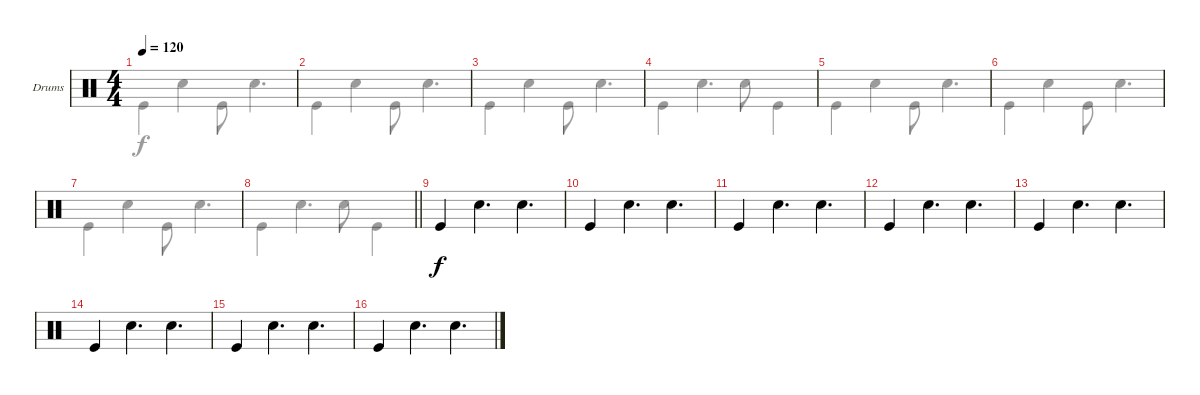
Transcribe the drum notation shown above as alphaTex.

\defaultSystemsLayout 4
\bracketExtendMode groupsimilarinstruments
\firstSystemTrackNameOrientation horizontal
\otherSystemsTrackNameOrientation horizontal
\track ("Drums" "Drums") {instrument percussion}
\staff {score}
\articulation defaults
\voice
\ts (4 4)
\scale
0.534395
\tempo 120
\accidentals auto
\clef neutral
\ottava regular
\simile none
\ks aminor
|
\scale
0.465695 |
\scale
0.499796 |
\scale
0.500548 |
\scale
0.52725 |
\scale
0.472816 |
\scale
0.502149 |
\scale
0.498113
\barLineRight lightlight
|
\scale
0.518571 "Kick (hit)".4 "Snare (hit) 2".4{d} "Snare (hit) 2".4{d} |
\scale
0.481481 "Kick (hit)".4 "Snare (hit) 2".4{d} "Snare (hit) 2".4{d} |
\scale
0.522857 "Kick (hit)".4 "Snare (hit) 2".4{d} "Snare (hit) 2".4{d} |
\scale
0.477208 "Kick (hit)".4 "Snare (hit) 2".4{d} "Snare (hit) 2".4{d} |
\scale
0.535714 "Kick (hit)".4 "Snare (hit) 2".4{d} "Snare (hit) 2".4{d} |
\scale
0.464387 "Kick (hit)".4 "Snare (hit) 2".4{d} "Snare (hit) 2".4{d} |
\scale
0.544286 "Kick (hit)".4 "Snare (hit) 2".4{d} "Snare (hit) 2".4{d} |
\scale
0.45584 "Kick (hit)".4 "Snare (hit) 2".4{d} "Snare (hit) 2".4{d}
\voice
\clef neutral
\ottava regular
\simile none
\ks aminor "Kick (hit)".4{dy f} "Snare (hit) 2".4 "Kick (hit)".8 "Snare (hit) 2".4{d}
|
"Kick (hit)".4 "Snare (hit) 2".4 "Kick (hit)".8 "Snare (hit) 2".4{d} |
"Kick (hit)".4 "Snare (hit) 2".4 "Kick (hit)".8 "Snare (hit) 2".4{d} |
"Kick (hit)".4 "Snare (hit) 2".4{d} "Snare (hit) 2".8 "Kick (hit)".4 |
"Kick (hit)".4 "Snare (hit) 2".4 "Kick (hit)".8 "Snare (hit) 2".4{d} |
"Kick (hit)".4 "Snare (hit) 2".4 "Kick (hit)".8 "Snare (hit) 2".4{d} |
"Kick (hit)".4 "Snare (hit) 2".4 "Kick (hit)".8 "Snare (hit) 2".4{d} |
\barLineRight lightlight "Kick (hit)".4 "Snare (hit) 2".4{d} "Snare (hit) 2".8 "Kick (hit)".4
|
|
|
|
|
|
|
|
